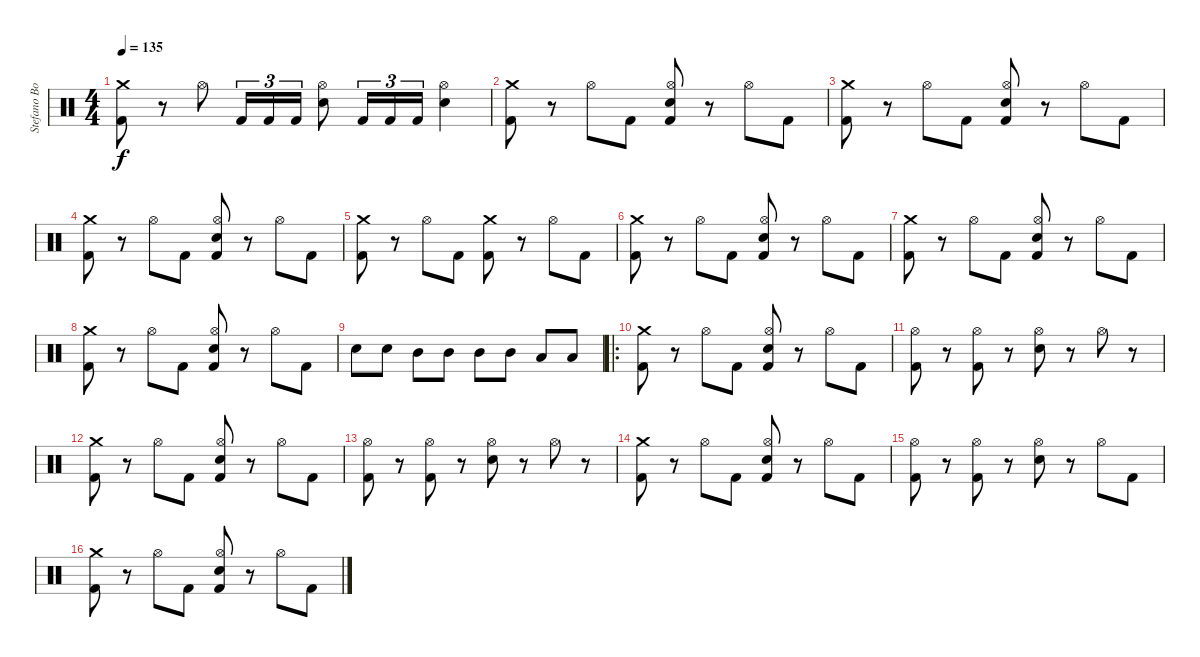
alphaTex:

\track ("Stefano Bonini" "Stefano Bo") {instrument percussion}
\staff {score}
\articulation defaults
\ts (4 4)
\tempo 135
\clef neutral
\ks c
("Crash medium (hit)" "Kick (hit) 2").8{dy f} r.8 "Hi-Hat (open)".8 "Kick (hit) 2".16{tu (3 2)} "Kick (hit) 2".16{tu (3 2)} "Kick (hit) 2".16{tu (3 2)} ("Hi-Hat (open)" "Electric Snare (hit)").8 "Kick (hit) 2".16{tu (3 2)} "Kick (hit) 2".16{tu (3 2)} "Kick (hit) 2".16{tu (3 2)} ("Hi-Hat (open)" "Electric Snare (hit)").4 |
("Crash medium (hit)" "Kick (hit) 2").8 r.8 "Hi-Hat (open)".8 "Kick (hit) 2".8 ("Hi-Hat (open)" "Electric Snare (hit)" "Kick (hit) 2").8 r.8 "Hi-Hat (open)".8 "Kick (hit) 2".8 |
("Crash medium (hit)" "Kick (hit) 2").8 r.8 "Hi-Hat (open)".8 "Kick (hit) 2".8 ("Hi-Hat (open)" "Electric Snare (hit)" "Kick (hit) 2").8 r.8 "Hi-Hat (open)".8 "Kick (hit) 2".8 |
("Crash medium (hit)" "Kick (hit) 2").8 r.8 "Hi-Hat (open)".8 "Kick (hit) 2".8 ("Hi-Hat (open)" "Electric Snare (hit)" "Kick (hit) 2").8 r.8 "Hi-Hat (open)".8 "Kick (hit) 2".8 |
("Crash medium (hit)" "Kick (hit) 2").8 r.8 "Hi-Hat (open)".8 "Kick (hit) 2".8 ("Crash medium (hit)" "Kick (hit) 2").8 r.8 "Hi-Hat (open)".8 "Kick (hit) 2".8 |
("Crash medium (hit)" "Kick (hit) 2").8 r.8 "Hi-Hat (open)".8 "Kick (hit) 2".8 ("Hi-Hat (open)" "Electric Snare (hit)" "Kick (hit) 2").8 r.8 "Hi-Hat (open)".8 "Kick (hit) 2".8 |
("Crash medium (hit)" "Kick (hit) 2").8 r.8 "Hi-Hat (open)".8 "Kick (hit) 2".8 ("Hi-Hat (open)" "Electric Snare (hit)" "Kick (hit) 2").8 r.8 "Hi-Hat (open)".8 "Kick (hit) 2".8 |
("Crash medium (hit)" "Kick (hit) 2").8 r.8 "Hi-Hat (open)".8 "Kick (hit) 2".8 ("Hi-Hat (open)" "Electric Snare (hit)" "Kick (hit) 2").8 r.8 "Hi-Hat (open)".8 "Kick (hit) 2".8 |
"Electric Snare (hit)".8 "Electric Snare (hit)".8 "Mid Tom (hit)".8 "Mid Tom (hit)".8 "Mid Tom (hit)".8 "Mid Tom (hit)".8 "Low Tom (hit)".8 "Low Tom (hit)".8 |
\ro
("Crash medium (hit)" "Kick (hit) 2").8 r.8 "Hi-Hat (open)".8 "Kick (hit) 2".8 ("Hi-Hat (open)" "Electric Snare (hit)" "Kick (hit) 2").8 r.8 "Hi-Hat (open)".8 "Kick (hit) 2".8 |
("Hi-Hat (open)" "Kick (hit) 2").8 r.8 ("Hi-Hat (open)" "Kick (hit) 2").8 r.8 ("Hi-Hat (open)" "Electric Snare (hit)").8 r.8 "Hi-Hat (open)".8 r.8 |
("Crash medium (hit)" "Kick (hit) 2").8 r.8 "Hi-Hat (open)".8 "Kick (hit) 2".8 ("Hi-Hat (open)" "Electric Snare (hit)" "Kick (hit) 2").8 r.8 "Hi-Hat (open)".8 "Kick (hit) 2".8 |
("Hi-Hat (open)" "Kick (hit) 2").8 r.8 ("Hi-Hat (open)" "Kick (hit) 2").8 r.8 ("Hi-Hat (open)" "Electric Snare (hit)").8 r.8 "Hi-Hat (open)".8 r.8 |
("Crash medium (hit)" "Kick (hit) 2").8 r.8 "Hi-Hat (open)".8 "Kick (hit) 2".8 ("Hi-Hat (open)" "Electric Snare (hit)" "Kick (hit) 2").8 r.8 "Hi-Hat (open)".8 "Kick (hit) 2".8 |
("Hi-Hat (open)" "Kick (hit) 2").8 r.8 ("Hi-Hat (open)" "Kick (hit) 2").8 r.8 ("Hi-Hat (open)" "Electric Snare (hit)").8 r.8 "Hi-Hat (open)".8 "Kick (hit) 2".8 |
("Crash medium (hit)" "Kick (hit) 2").8 r.8 "Hi-Hat (open)".8 "Kick (hit) 2".8 ("Hi-Hat (open)" "Electric Snare (hit)" "Kick (hit) 2").8 r.8 "Hi-Hat (open)".8 "Kick (hit) 2".8
